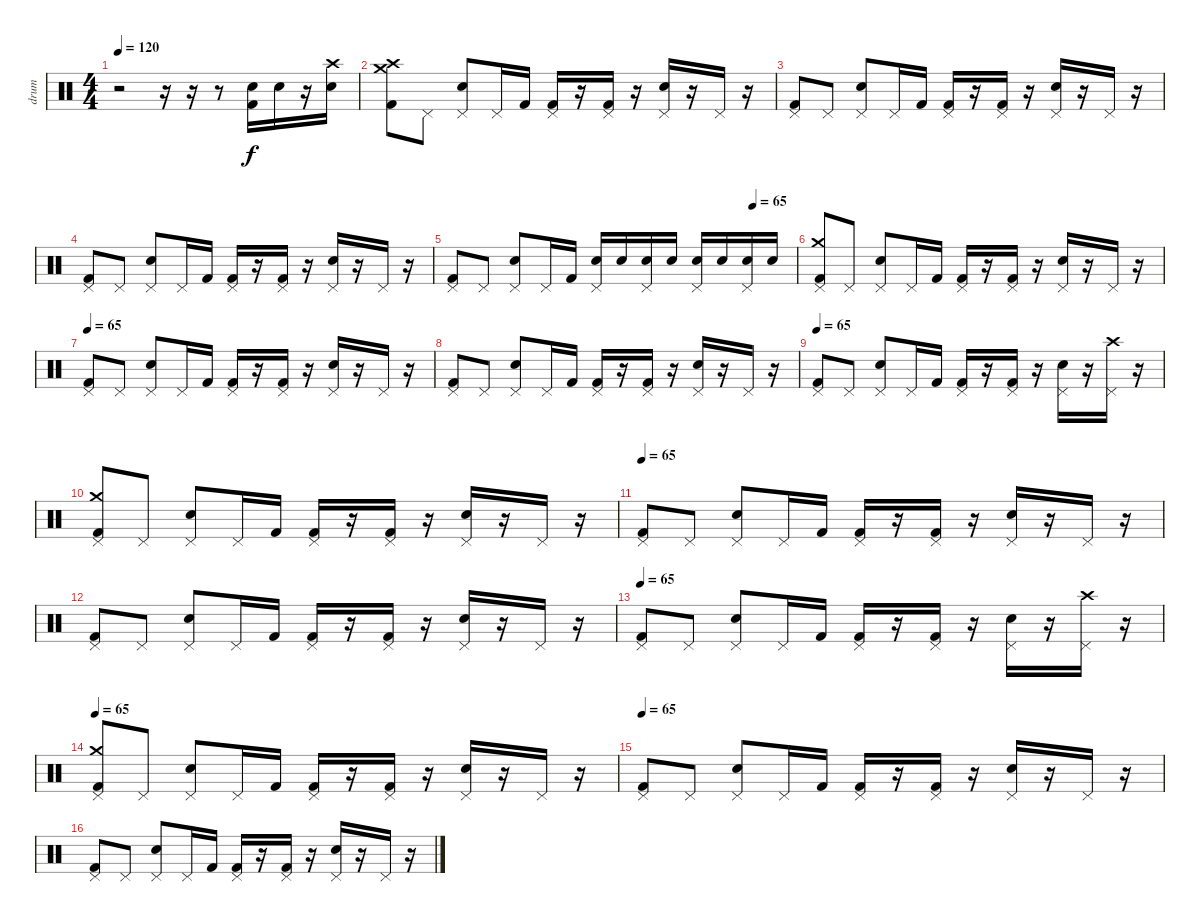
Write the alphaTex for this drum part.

\track ("drum" "drum") {instrument percussion}
\staff {score}
\articulation defaults
\ts (4 4)
\tempo 120
\tempo 65
\tempo 120
\clef neutral
\ks c
r.2{dy f} r.16 r.16 r.8 ("Electric Snare (hit)" "Kick (hit) 2").16 "Electric Snare (hit)".16 r.16 ("Crash high (hit)" "Electric Snare (hit)").16 |
("Crash high (hit)" "Crash medium (hit)" "Kick (hit) 2").8 "Pedal Hi-Hat (hit)".8 ("Pedal Hi-Hat (hit)" "Electric Snare (hit)").8 "Pedal Hi-Hat (hit)".16 "Kick (hit) 2".16 ("Pedal Hi-Hat (hit)" "Kick (hit) 2").16 r.16 ("Pedal Hi-Hat (hit)" "Kick (hit) 2").16 r.16 ("Pedal Hi-Hat (hit)" "Electric Snare (hit)").16 r.16 "Pedal Hi-Hat (hit)".16 r.16 |
("Pedal Hi-Hat (hit)" "Kick (hit) 2").8 "Pedal Hi-Hat (hit)".8 ("Pedal Hi-Hat (hit)" "Electric Snare (hit)").8 "Pedal Hi-Hat (hit)".16 "Kick (hit) 2".16 ("Pedal Hi-Hat (hit)" "Kick (hit) 2").16 r.16 ("Pedal Hi-Hat (hit)" "Kick (hit) 2").16 r.16 ("Pedal Hi-Hat (hit)" "Electric Snare (hit)").16 r.16 "Pedal Hi-Hat (hit)".16 r.16 |
("Pedal Hi-Hat (hit)" "Kick (hit) 2").8 "Pedal Hi-Hat (hit)".8 ("Pedal Hi-Hat (hit)" "Electric Snare (hit)").8 "Pedal Hi-Hat (hit)".16 "Kick (hit) 2".16 ("Pedal Hi-Hat (hit)" "Kick (hit) 2").16 r.16 ("Pedal Hi-Hat (hit)" "Kick (hit) 2").16 r.16 ("Pedal Hi-Hat (hit)" "Electric Snare (hit)").16 r.16 "Pedal Hi-Hat (hit)".16 r.16 |
\tempo (65 0.875)
("Pedal Hi-Hat (hit)" "Kick (hit) 2").8 "Pedal Hi-Hat (hit)".8 ("Pedal Hi-Hat (hit)" "Electric Snare (hit)").8 "Pedal Hi-Hat (hit)".16 "Kick (hit) 2".16 ("Pedal Hi-Hat (hit)" "Electric Snare (hit)").16 "Electric Snare (hit)".16 ("Pedal Hi-Hat (hit)" "Electric Snare (hit)").16 "Electric Snare (hit)".16 ("Pedal Hi-Hat (hit)" "Electric Snare (hit)").16 "Electric Snare (hit)".16 ("Pedal Hi-Hat (hit)" "Electric Snare (hit)").16 "Electric Snare (hit)".16 |
("Pedal Hi-Hat (hit)" "Crash medium (hit)" "Kick (hit) 2").8 "Pedal Hi-Hat (hit)".8 ("Pedal Hi-Hat (hit)" "Electric Snare (hit)").8 "Pedal Hi-Hat (hit)".16 "Kick (hit) 2".16 ("Pedal Hi-Hat (hit)" "Kick (hit) 2").16 r.16 ("Pedal Hi-Hat (hit)" "Kick (hit) 2").16 r.16 ("Pedal Hi-Hat (hit)" "Electric Snare (hit)").16 r.16 "Pedal Hi-Hat (hit)".16 r.16 |
\tempo 65
("Pedal Hi-Hat (hit)" "Kick (hit) 2").8 "Pedal Hi-Hat (hit)".8 ("Pedal Hi-Hat (hit)" "Electric Snare (hit)").8 "Pedal Hi-Hat (hit)".16 "Kick (hit) 2".16 ("Pedal Hi-Hat (hit)" "Kick (hit) 2").16 r.16 ("Pedal Hi-Hat (hit)" "Kick (hit) 2").16 r.16 ("Pedal Hi-Hat (hit)" "Electric Snare (hit)").16 r.16 "Pedal Hi-Hat (hit)".16 r.16 |
("Pedal Hi-Hat (hit)" "Kick (hit) 2").8 "Pedal Hi-Hat (hit)".8 ("Pedal Hi-Hat (hit)" "Electric Snare (hit)").8 "Pedal Hi-Hat (hit)".16 "Kick (hit) 2".16 ("Pedal Hi-Hat (hit)" "Kick (hit) 2").16 r.16 ("Pedal Hi-Hat (hit)" "Kick (hit) 2").16 r.16 ("Pedal Hi-Hat (hit)" "Electric Snare (hit)").16 r.16 "Pedal Hi-Hat (hit)".16 r.16 |
\tempo 65
("Pedal Hi-Hat (hit)" "Kick (hit) 2").8 "Pedal Hi-Hat (hit)".8 ("Pedal Hi-Hat (hit)" "Electric Snare (hit)").8 "Pedal Hi-Hat (hit)".16 "Kick (hit) 2".16 ("Pedal Hi-Hat (hit)" "Kick (hit) 2").16 r.16 ("Pedal Hi-Hat (hit)" "Kick (hit) 2").16 r.16 ("Pedal Hi-Hat (hit)" "Electric Snare (hit)").16 r.16 ("Pedal Hi-Hat (hit)" "Crash high (hit)").16 r.16 |
("Pedal Hi-Hat (hit)" "Crash medium (hit)" "Kick (hit) 2").8 "Pedal Hi-Hat (hit)".8 ("Pedal Hi-Hat (hit)" "Electric Snare (hit)").8 "Pedal Hi-Hat (hit)".16 "Kick (hit) 2".16 ("Pedal Hi-Hat (hit)" "Kick (hit) 2").16 r.16 ("Pedal Hi-Hat (hit)" "Kick (hit) 2").16 r.16 ("Pedal Hi-Hat (hit)" "Electric Snare (hit)").16 r.16 "Pedal Hi-Hat (hit)".16 r.16 |
\tempo 65
("Pedal Hi-Hat (hit)" "Kick (hit) 2").8 "Pedal Hi-Hat (hit)".8 ("Pedal Hi-Hat (hit)" "Electric Snare (hit)").8 "Pedal Hi-Hat (hit)".16 "Kick (hit) 2".16 ("Pedal Hi-Hat (hit)" "Kick (hit) 2").16 r.16 ("Pedal Hi-Hat (hit)" "Kick (hit) 2").16 r.16 ("Pedal Hi-Hat (hit)" "Electric Snare (hit)").16 r.16 "Pedal Hi-Hat (hit)".16 r.16 |
("Pedal Hi-Hat (hit)" "Kick (hit) 2").8 "Pedal Hi-Hat (hit)".8 ("Pedal Hi-Hat (hit)" "Electric Snare (hit)").8 "Pedal Hi-Hat (hit)".16 "Kick (hit) 2".16 ("Pedal Hi-Hat (hit)" "Kick (hit) 2").16 r.16 ("Pedal Hi-Hat (hit)" "Kick (hit) 2").16 r.16 ("Pedal Hi-Hat (hit)" "Electric Snare (hit)").16 r.16 "Pedal Hi-Hat (hit)".16 r.16 |
\tempo 65
("Pedal Hi-Hat (hit)" "Kick (hit) 2").8 "Pedal Hi-Hat (hit)".8 ("Pedal Hi-Hat (hit)" "Electric Snare (hit)").8 "Pedal Hi-Hat (hit)".16 "Kick (hit) 2".16 ("Pedal Hi-Hat (hit)" "Kick (hit) 2").16 r.16 ("Pedal Hi-Hat (hit)" "Kick (hit) 2").16 r.16 ("Pedal Hi-Hat (hit)" "Electric Snare (hit)").16 r.16 ("Pedal Hi-Hat (hit)" "Crash high (hit)").16 r.16 |
\tempo 65
("Pedal Hi-Hat (hit)" "Crash medium (hit)" "Kick (hit) 2").8 "Pedal Hi-Hat (hit)".8 ("Pedal Hi-Hat (hit)" "Electric Snare (hit)").8 "Pedal Hi-Hat (hit)".16 "Kick (hit) 2".16 ("Pedal Hi-Hat (hit)" "Kick (hit) 2").16 r.16 ("Pedal Hi-Hat (hit)" "Kick (hit) 2").16 r.16 ("Pedal Hi-Hat (hit)" "Electric Snare (hit)").16 r.16 "Pedal Hi-Hat (hit)".16 r.16 |
\tempo 65
("Pedal Hi-Hat (hit)" "Kick (hit) 2").8 "Pedal Hi-Hat (hit)".8 ("Pedal Hi-Hat (hit)" "Electric Snare (hit)").8 "Pedal Hi-Hat (hit)".16 "Kick (hit) 2".16 ("Pedal Hi-Hat (hit)" "Kick (hit) 2").16 r.16 ("Pedal Hi-Hat (hit)" "Kick (hit) 2").16 r.16 ("Pedal Hi-Hat (hit)" "Electric Snare (hit)").16 r.16 "Pedal Hi-Hat (hit)".16 r.16 |
("Pedal Hi-Hat (hit)" "Kick (hit) 2").8 "Pedal Hi-Hat (hit)".8 ("Pedal Hi-Hat (hit)" "Electric Snare (hit)").8 "Pedal Hi-Hat (hit)".16 "Kick (hit) 2".16 ("Pedal Hi-Hat (hit)" "Kick (hit) 2").16 r.16 ("Pedal Hi-Hat (hit)" "Kick (hit) 2").16 r.16 ("Pedal Hi-Hat (hit)" "Electric Snare (hit)").16 r.16 "Pedal Hi-Hat (hit)".16 r.16
